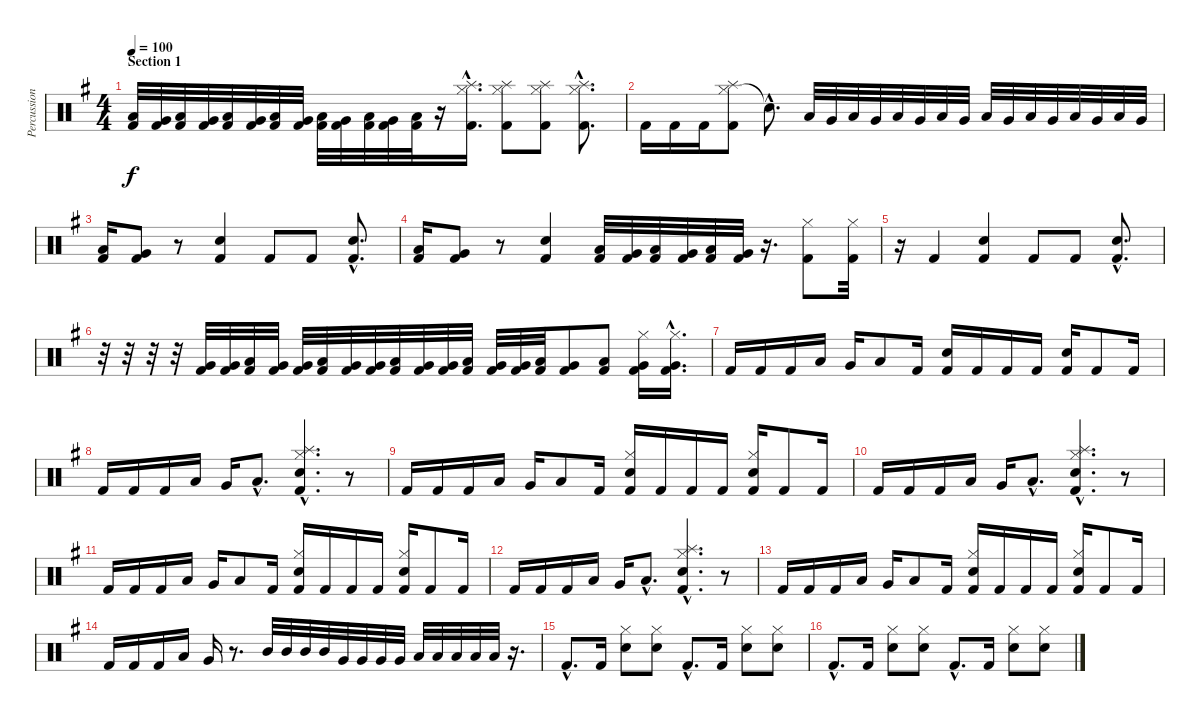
\track ("Percussion" "Percussion") {instrument percussion}
\staff {score}
\articulation defaults
\ts (4 4)
\section ("" "Section 1")
\tempo 100
\clef neutral
\ks g
("Low Floor Tom (hit)" "Kick (hit) 2").32{dy f} ("Very Low Tom (hit)" "Kick (hit) 2").32 ("Low Floor Tom (hit)" "Kick (hit) 2").32 ("Very Low Tom (hit)" "Kick (hit) 2").32 ("Low Floor Tom (hit)" "Kick (hit) 2").32 ("Very Low Tom (hit)" "Kick (hit) 2").32 ("Low Floor Tom (hit)" "Kick (hit) 2").32 ("Very Low Tom (hit)" "Kick (hit) 2").32 ("Low Floor Tom (hit)" "Kick (hit) 2").32 ("Very Low Tom (hit)" "Kick (hit) 2").32 ("Low Floor Tom (hit)" "Kick (hit) 2").32 ("Very Low Tom (hit)" "Kick (hit) 2").32 ("Low Floor Tom (hit)" "Kick (hit) 2").32 r.16 ("Hi-Hat (closed)"{hac} "Kick (hit) 2"{hac} "Splash (hit)"{hac}).16{d} ("Hi-Hat (closed)" "Kick (hit) 2" "Splash (hit)").8 ("Hi-Hat (closed)" "Kick (hit) 2" "Splash (hit)").8 ("Hi-Hat (closed)"{hac} "Kick (hit) 2"{hac} "Splash (hit)"{hac}).8{d} |
"Kick (hit) 2".16 "Kick (hit) 2".16 "Kick (hit) 2".16 ("Hi-Hat (closed)" "Kick (hit) 2" "Splash (hit)").8 "Snare (hit)"{hac t}.8{d} "Low Floor Tom (hit)".32 "Very Low Tom (hit)".32 "Low Floor Tom (hit)".32 "Very Low Tom (hit)".32 "Low Floor Tom (hit)".32 "Very Low Tom (hit)".32 "Low Floor Tom (hit)".32 "Very Low Tom (hit)".32 "Low Floor Tom (hit)".32 "Very Low Tom (hit)".32 "Low Floor Tom (hit)".32 "Very Low Tom (hit)".32 "Low Floor Tom (hit)".32 "Very Low Tom (hit)".32 "Low Floor Tom (hit)".32 "Very Low Tom (hit)".32 |
("Low Floor Tom (hit)" "Kick (hit) 2").16 ("Very Low Tom (hit)" "Kick (hit) 2").8 r.8 ("Kick (hit) 2" "Snare (hit) 2").4 "Kick (hit) 2".8 "Kick (hit) 2".8 ("Kick (hit) 2"{hac} "Snare (hit) 2"{hac}).8{d} |
("Low Floor Tom (hit)" "Kick (hit) 2").16 ("Very Low Tom (hit)" "Kick (hit) 2").8 r.8 ("Kick (hit) 2" "Snare (hit) 2").4 ("Low Floor Tom (hit)" "Kick (hit) 2").32 ("Very Low Tom (hit)" "Kick (hit) 2").32 ("Low Floor Tom (hit)" "Kick (hit) 2").32 ("Very Low Tom (hit)" "Kick (hit) 2").32 ("Low Floor Tom (hit)" "Kick (hit) 2").32 ("Very Low Tom (hit)" "Kick (hit) 2").32 r.16{d} ("Hi-Hat (closed)" "Kick (hit) 2").8 ("Hi-Hat (closed)" "Kick (hit) 2").32 |
r.16 "Kick (hit) 2".4 ("Snare (hit) 2" "Kick (hit) 2").4 "Kick (hit) 2".8 "Kick (hit) 2".8 ("Snare (hit) 2"{hac} "Kick (hit) 2"{hac}).8{d} |
r.32 r.32 r.32 r.32 ("Very Low Tom (hit)" "Kick (hit) 2").32 ("Very Low Tom (hit)" "Kick (hit) 2").32 ("Low Floor Tom (hit)" "Kick (hit) 2").32 ("Very Low Tom (hit)" "Kick (hit) 2").32 ("Very Low Tom (hit)" "Kick (hit) 2").32 ("Low Floor Tom (hit)" "Kick (hit) 2").32 ("Very Low Tom (hit)" "Kick (hit) 2").32 ("Very Low Tom (hit)" "Kick (hit) 2").32 ("Low Floor Tom (hit)" "Kick (hit) 2").32 ("Very Low Tom (hit)" "Kick (hit) 2").32 ("Very Low Tom (hit)" "Kick (hit) 2").32 ("Low Floor Tom (hit)" "Kick (hit) 2").32 ("Very Low Tom (hit)" "Kick (hit) 2").32 ("Very Low Tom (hit)" "Kick (hit) 2").32 ("Low Floor Tom (hit)" "Kick (hit) 2").32 ("Very Low Tom (hit)" "Kick (hit) 2").8 ("Low Floor Tom (hit)" "Kick (hit) 2").8 ("Hi-Hat (closed)" "Very Low Tom (hit)" "Kick (hit) 2").16 ("Hi-Hat (closed)"{hac} "Very Low Tom (hit)"{hac} "Kick (hit) 2"{hac}).16{d} |
"Kick (hit) 2".16 "Kick (hit) 2".16 "Kick (hit) 2".16 "Low Floor Tom (hit)".16 "Very Low Tom (hit)".16 "Low Floor Tom (hit)".8 "Kick (hit) 2".16 ("Snare (hit) 2" "Kick (hit) 2").16 "Kick (hit) 2".16 "Kick (hit) 2".16 "Kick (hit) 2".16 ("Snare (hit) 2" "Kick (hit) 2").16 "Kick (hit) 2".8 "Kick (hit) 2".16 |
"Kick (hit) 2".16 "Kick (hit) 2".16 "Kick (hit) 2".16 "Low Floor Tom (hit)".16 "Very Low Tom (hit)".16 "Low Floor Tom (hit)"{hac}.8{d} ("Hi-Hat (closed)"{hac} "Snare (hit) 2"{hac} "Splash (hit)"{hac} "Kick (hit) 2"{hac}).4{d} r.8 |
"Kick (hit) 2".16 "Kick (hit) 2".16 "Kick (hit) 2".16 "Low Floor Tom (hit)".16 "Very Low Tom (hit)".16 "Low Floor Tom (hit)".8 "Kick (hit) 2".16 ("Hi-Hat (closed)" "Snare (hit) 2" "Kick (hit) 2").16 "Kick (hit) 2".16 "Kick (hit) 2".16 "Kick (hit) 2".16 ("Hi-Hat (closed)" "Snare (hit) 2" "Kick (hit) 2").16 "Kick (hit) 2".8 "Kick (hit) 2".16 |
"Kick (hit) 2".16 "Kick (hit) 2".16 "Kick (hit) 2".16 "Low Floor Tom (hit)".16 "Very Low Tom (hit)".16 "Low Floor Tom (hit)"{hac}.8{d} ("Hi-Hat (closed)"{hac} "Snare (hit) 2"{hac} "Splash (hit)"{hac} "Kick (hit) 2"{hac}).4{d} r.8 |
"Kick (hit) 2".16 "Kick (hit) 2".16 "Kick (hit) 2".16 "Low Floor Tom (hit)".16 "Very Low Tom (hit)".16 "Low Floor Tom (hit)".8 "Kick (hit) 2".16 ("Hi-Hat (closed)" "Snare (hit) 2" "Kick (hit) 2").16 "Kick (hit) 2".16 "Kick (hit) 2".16 "Kick (hit) 2".16 ("Hi-Hat (closed)" "Snare (hit) 2" "Kick (hit) 2").16 "Kick (hit) 2".8 "Kick (hit) 2".16 |
"Kick (hit) 2".16 "Kick (hit) 2".16 "Kick (hit) 2".16 "Low Floor Tom (hit)".16 "Very Low Tom (hit)".16 "Low Floor Tom (hit)"{hac}.8{d} ("Hi-Hat (closed)"{hac} "Snare (hit) 2"{hac} "Splash (hit)"{hac} "Kick (hit) 2"{hac}).4{d} r.8 |
"Kick (hit) 2".16 "Kick (hit) 2".16 "Kick (hit) 2".16 "Low Floor Tom (hit)".16 "Very Low Tom (hit)".16 "Low Floor Tom (hit)".8 "Kick (hit) 2".16 ("Hi-Hat (closed)" "Snare (hit) 2" "Kick (hit) 2").16 "Kick (hit) 2".16 "Kick (hit) 2".16 "Kick (hit) 2".16 ("Hi-Hat (closed)" "Snare (hit) 2" "Kick (hit) 2").16 "Kick (hit) 2".8 "Kick (hit) 2".16 |
"Kick (hit) 2".16 "Kick (hit) 2".16 "Kick (hit) 2".16 "Low Floor Tom (hit)".16 "Very Low Tom (hit)".16 r.8{d} "Mid Tom (hit)".32 "Mid Tom (hit)".32 "Mid Tom (hit)".32 "Mid Tom (hit)".32 "Very Low Tom (hit)".32 "Very Low Tom (hit)".32 "Very Low Tom (hit)".32 "Very Low Tom (hit)".32 "Low Floor Tom (hit)".32 "Low Floor Tom (hit)".32 "Low Floor Tom (hit)".32 "Low Floor Tom (hit)".32 "Low Floor Tom (hit)".32 r.16{d} |
"Kick (hit) 2"{hac}.8{d} "Kick (hit) 2".16 ("Hi-Hat (closed)" "Snare (hit) 2").8 ("Hi-Hat (closed)" "Snare (hit) 2").8 "Kick (hit) 2"{hac}.8{d} "Kick (hit) 2".16 ("Hi-Hat (closed)" "Snare (hit) 2").8 ("Hi-Hat (closed)" "Snare (hit) 2").8 |
"Kick (hit) 2"{hac}.8{d} "Kick (hit) 2".16 ("Hi-Hat (closed)" "Snare (hit) 2").8 ("Hi-Hat (closed)" "Snare (hit) 2").8 "Kick (hit) 2"{hac}.8{d} "Kick (hit) 2".16 ("Hi-Hat (closed)" "Snare (hit) 2").8 ("Hi-Hat (closed)" "Snare (hit) 2").8
